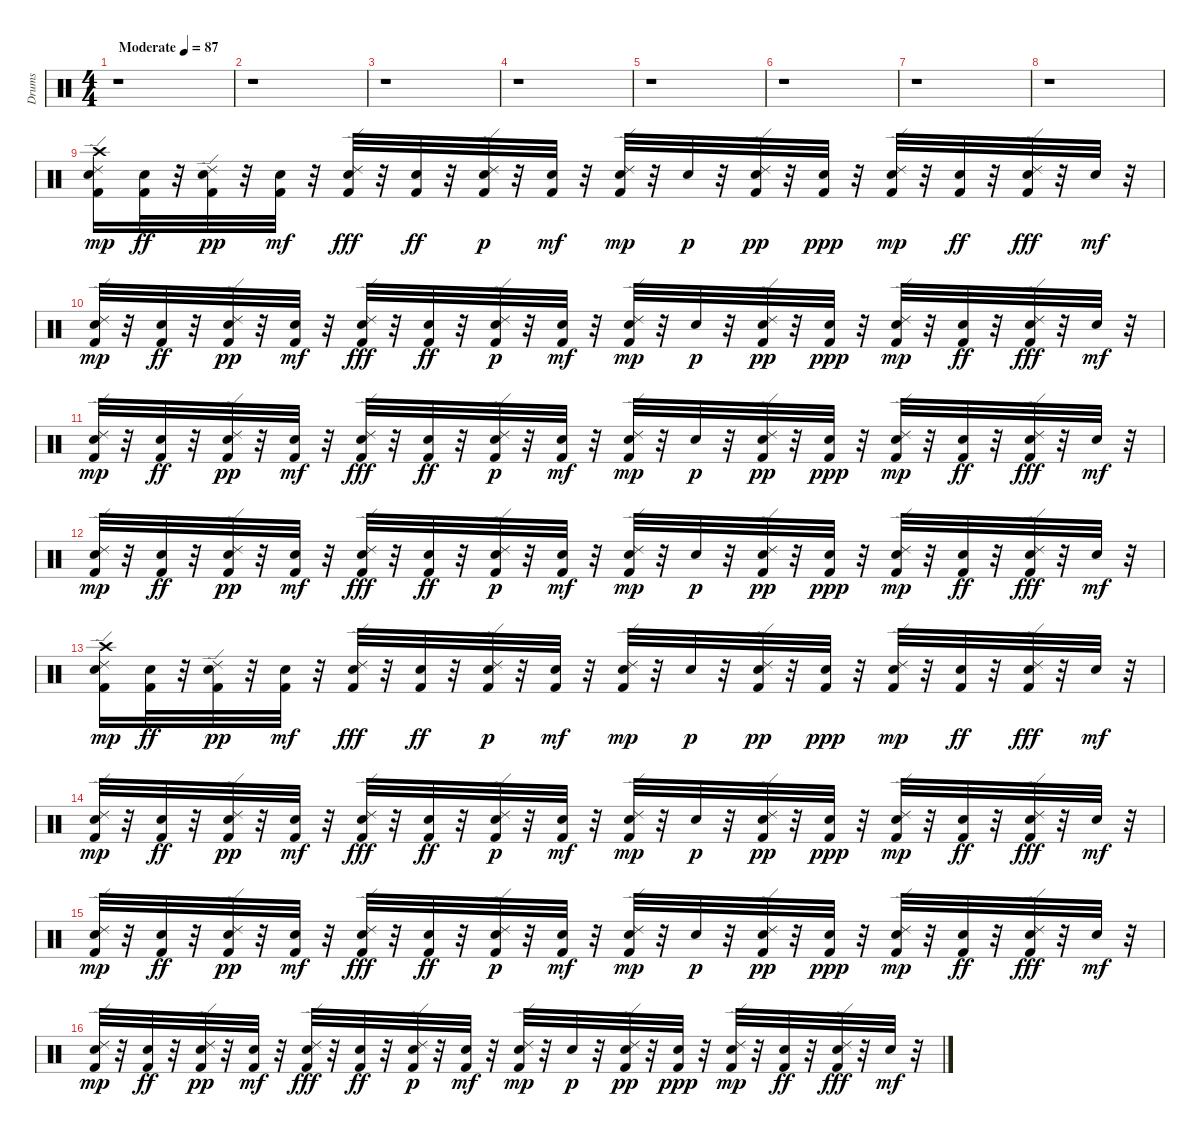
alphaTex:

\track ("Drums" "Drums") {instrument percussion}
\staff {score}
\articulation defaults
\ts (4 4)
\tempo (87 "Moderate")
\clef neutral
\ks c
r.1{dy mp} |
r.1 |
r.1 |
r.1 |
r.1 |
r.1 |
r.1 |
r.1 |
("Crash high (hit)" "Ride (edge) 2" "Kick (hit) 2" "Snare (hit) 2").16 ("Snare (hit) 2" "Kick (hit) 2").32{dy ff} r.32 ("Ride (edge) 2" "Kick (hit) 2" "Snare (hit) 2").32{dy pp} r.32 ("Snare (hit) 2" "Kick (hit) 2").32{dy mf} r.32 ("Ride (edge) 2" "Kick (hit) 2" "Snare (hit) 2").32{dy fff} r.32 ("Kick (hit) 2" "Snare (hit) 2").32{dy ff} r.32 ("Ride (edge) 2" "Kick (hit) 2" "Snare (hit) 2").32{dy p} r.32 ("Kick (hit) 2" "Snare (hit) 2").32{dy mf} r.32 ("Ride (edge) 2" "Kick (hit) 2" "Snare (hit) 2").32{dy mp} r.32 "Snare (hit) 2".32{dy p} r.32 ("Ride (edge) 2" "Kick (hit) 2" "Snare (hit) 2").32{dy pp} r.32 ("Snare (hit) 2" "Kick (hit) 2").32{dy ppp} r.32 ("Ride (edge) 2" "Snare (hit) 2" "Kick (hit) 2").32{dy mp} r.32 ("Kick (hit) 2" "Snare (hit) 2").32{dy ff} r.32 ("Ride (edge) 2" "Kick (hit) 2" "Snare (hit) 2").32{dy fff} r.32 "Snare (hit) 2".32{dy mf} r.32 |
("Ride (edge) 2" "Kick (hit) 2" "Snare (hit) 2").32{dy mp} r.32 ("Snare (hit) 2" "Kick (hit) 2").32{dy ff} r.32 ("Ride (edge) 2" "Kick (hit) 2" "Snare (hit) 2").32{dy pp} r.32 ("Snare (hit) 2" "Kick (hit) 2").32{dy mf} r.32 ("Ride (edge) 2" "Kick (hit) 2" "Snare (hit) 2").32{dy fff} r.32 ("Kick (hit) 2" "Snare (hit) 2").32{dy ff} r.32 ("Ride (edge) 2" "Kick (hit) 2" "Snare (hit) 2").32{dy p} r.32 ("Kick (hit) 2" "Snare (hit) 2").32{dy mf} r.32 ("Ride (edge) 2" "Kick (hit) 2" "Snare (hit) 2").32{dy mp} r.32 "Snare (hit) 2".32{dy p} r.32 ("Ride (edge) 2" "Kick (hit) 2" "Snare (hit) 2").32{dy pp} r.32 ("Snare (hit) 2" "Kick (hit) 2").32{dy ppp} r.32 ("Ride (edge) 2" "Snare (hit) 2" "Kick (hit) 2").32{dy mp} r.32 ("Kick (hit) 2" "Snare (hit) 2").32{dy ff} r.32 ("Ride (edge) 2" "Kick (hit) 2" "Snare (hit) 2").32{dy fff} r.32 "Snare (hit) 2".32{dy mf} r.32 |
("Ride (edge) 2" "Kick (hit) 2" "Snare (hit) 2").32{dy mp} r.32 ("Snare (hit) 2" "Kick (hit) 2").32{dy ff} r.32 ("Ride (edge) 2" "Kick (hit) 2" "Snare (hit) 2").32{dy pp} r.32 ("Snare (hit) 2" "Kick (hit) 2").32{dy mf} r.32 ("Ride (edge) 2" "Kick (hit) 2" "Snare (hit) 2").32{dy fff} r.32 ("Kick (hit) 2" "Snare (hit) 2").32{dy ff} r.32 ("Ride (edge) 2" "Kick (hit) 2" "Snare (hit) 2").32{dy p} r.32 ("Kick (hit) 2" "Snare (hit) 2").32{dy mf} r.32 ("Ride (edge) 2" "Kick (hit) 2" "Snare (hit) 2").32{dy mp} r.32 "Snare (hit) 2".32{dy p} r.32 ("Ride (edge) 2" "Kick (hit) 2" "Snare (hit) 2").32{dy pp} r.32 ("Snare (hit) 2" "Kick (hit) 2").32{dy ppp} r.32 ("Ride (edge) 2" "Snare (hit) 2" "Kick (hit) 2").32{dy mp} r.32 ("Kick (hit) 2" "Snare (hit) 2").32{dy ff} r.32 ("Ride (edge) 2" "Kick (hit) 2" "Snare (hit) 2").32{dy fff} r.32 "Snare (hit) 2".32{dy mf} r.32 |
("Ride (edge) 2" "Kick (hit) 2" "Snare (hit) 2").32{dy mp} r.32 ("Snare (hit) 2" "Kick (hit) 2").32{dy ff} r.32 ("Ride (edge) 2" "Kick (hit) 2" "Snare (hit) 2").32{dy pp} r.32 ("Snare (hit) 2" "Kick (hit) 2").32{dy mf} r.32 ("Ride (edge) 2" "Kick (hit) 2" "Snare (hit) 2").32{dy fff} r.32 ("Kick (hit) 2" "Snare (hit) 2").32{dy ff} r.32 ("Ride (edge) 2" "Kick (hit) 2" "Snare (hit) 2").32{dy p} r.32 ("Kick (hit) 2" "Snare (hit) 2").32{dy mf} r.32 ("Ride (edge) 2" "Kick (hit) 2" "Snare (hit) 2").32{dy mp} r.32 "Snare (hit) 2".32{dy p} r.32 ("Ride (edge) 2" "Kick (hit) 2" "Snare (hit) 2").32{dy pp} r.32 ("Snare (hit) 2" "Kick (hit) 2").32{dy ppp} r.32 ("Ride (edge) 2" "Snare (hit) 2" "Kick (hit) 2").32{dy mp} r.32 ("Kick (hit) 2" "Snare (hit) 2").32{dy ff} r.32 ("Ride (edge) 2" "Kick (hit) 2" "Snare (hit) 2").32{dy fff} r.32 "Snare (hit) 2".32{dy mf} r.32 |
("Crash high (hit)" "Ride (edge) 2" "Kick (hit) 2" "Snare (hit) 2").16{dy mp} ("Snare (hit) 2" "Kick (hit) 2").32{dy ff} r.32 ("Ride (edge) 2" "Kick (hit) 2" "Snare (hit) 2").32{dy pp} r.32 ("Snare (hit) 2" "Kick (hit) 2").32{dy mf} r.32 ("Ride (edge) 2" "Kick (hit) 2" "Snare (hit) 2").32{dy fff} r.32 ("Kick (hit) 2" "Snare (hit) 2").32{dy ff} r.32 ("Ride (edge) 2" "Kick (hit) 2" "Snare (hit) 2").32{dy p} r.32 ("Kick (hit) 2" "Snare (hit) 2").32{dy mf} r.32 ("Ride (edge) 2" "Kick (hit) 2" "Snare (hit) 2").32{dy mp} r.32 "Snare (hit) 2".32{dy p} r.32 ("Ride (edge) 2" "Kick (hit) 2" "Snare (hit) 2").32{dy pp} r.32 ("Snare (hit) 2" "Kick (hit) 2").32{dy ppp} r.32 ("Ride (edge) 2" "Snare (hit) 2" "Kick (hit) 2").32{dy mp} r.32 ("Kick (hit) 2" "Snare (hit) 2").32{dy ff} r.32 ("Ride (edge) 2" "Kick (hit) 2" "Snare (hit) 2").32{dy fff} r.32 "Snare (hit) 2".32{dy mf} r.32 |
("Ride (edge) 2" "Kick (hit) 2" "Snare (hit) 2").32{dy mp} r.32 ("Snare (hit) 2" "Kick (hit) 2").32{dy ff} r.32 ("Ride (edge) 2" "Kick (hit) 2" "Snare (hit) 2").32{dy pp} r.32 ("Snare (hit) 2" "Kick (hit) 2").32{dy mf} r.32 ("Ride (edge) 2" "Kick (hit) 2" "Snare (hit) 2").32{dy fff} r.32 ("Kick (hit) 2" "Snare (hit) 2").32{dy ff} r.32 ("Ride (edge) 2" "Kick (hit) 2" "Snare (hit) 2").32{dy p} r.32 ("Kick (hit) 2" "Snare (hit) 2").32{dy mf} r.32 ("Ride (edge) 2" "Kick (hit) 2" "Snare (hit) 2").32{dy mp} r.32 "Snare (hit) 2".32{dy p} r.32 ("Ride (edge) 2" "Kick (hit) 2" "Snare (hit) 2").32{dy pp} r.32 ("Snare (hit) 2" "Kick (hit) 2").32{dy ppp} r.32 ("Ride (edge) 2" "Snare (hit) 2" "Kick (hit) 2").32{dy mp} r.32 ("Kick (hit) 2" "Snare (hit) 2").32{dy ff} r.32 ("Ride (edge) 2" "Kick (hit) 2" "Snare (hit) 2").32{dy fff} r.32 "Snare (hit) 2".32{dy mf} r.32 |
("Ride (edge) 2" "Kick (hit) 2" "Snare (hit) 2").32{dy mp} r.32 ("Snare (hit) 2" "Kick (hit) 2").32{dy ff} r.32 ("Ride (edge) 2" "Kick (hit) 2" "Snare (hit) 2").32{dy pp} r.32 ("Snare (hit) 2" "Kick (hit) 2").32{dy mf} r.32 ("Ride (edge) 2" "Kick (hit) 2" "Snare (hit) 2").32{dy fff} r.32 ("Kick (hit) 2" "Snare (hit) 2").32{dy ff} r.32 ("Ride (edge) 2" "Kick (hit) 2" "Snare (hit) 2").32{dy p} r.32 ("Kick (hit) 2" "Snare (hit) 2").32{dy mf} r.32 ("Ride (edge) 2" "Kick (hit) 2" "Snare (hit) 2").32{dy mp} r.32 "Snare (hit) 2".32{dy p} r.32 ("Ride (edge) 2" "Kick (hit) 2" "Snare (hit) 2").32{dy pp} r.32 ("Snare (hit) 2" "Kick (hit) 2").32{dy ppp} r.32 ("Ride (edge) 2" "Snare (hit) 2" "Kick (hit) 2").32{dy mp} r.32 ("Kick (hit) 2" "Snare (hit) 2").32{dy ff} r.32 ("Ride (edge) 2" "Kick (hit) 2" "Snare (hit) 2").32{dy fff} r.32 "Snare (hit) 2".32{dy mf} r.32 |
("Ride (edge) 2" "Kick (hit) 2" "Snare (hit) 2").32{dy mp} r.32 ("Snare (hit) 2" "Kick (hit) 2").32{dy ff} r.32 ("Ride (edge) 2" "Kick (hit) 2" "Snare (hit) 2").32{dy pp} r.32 ("Snare (hit) 2" "Kick (hit) 2").32{dy mf} r.32 ("Ride (edge) 2" "Kick (hit) 2" "Snare (hit) 2").32{dy fff} r.32 ("Kick (hit) 2" "Snare (hit) 2").32{dy ff} r.32 ("Ride (edge) 2" "Kick (hit) 2" "Snare (hit) 2").32{dy p} r.32 ("Kick (hit) 2" "Snare (hit) 2").32{dy mf} r.32 ("Ride (edge) 2" "Kick (hit) 2" "Snare (hit) 2").32{dy mp} r.32 "Snare (hit) 2".32{dy p} r.32 ("Ride (edge) 2" "Kick (hit) 2" "Snare (hit) 2").32{dy pp} r.32 ("Snare (hit) 2" "Kick (hit) 2").32{dy ppp} r.32 ("Ride (edge) 2" "Snare (hit) 2" "Kick (hit) 2").32{dy mp} r.32 ("Kick (hit) 2" "Snare (hit) 2").32{dy ff} r.32 ("Ride (edge) 2" "Kick (hit) 2" "Snare (hit) 2").32{dy fff} r.32 "Snare (hit) 2".32{dy mf} r.32
